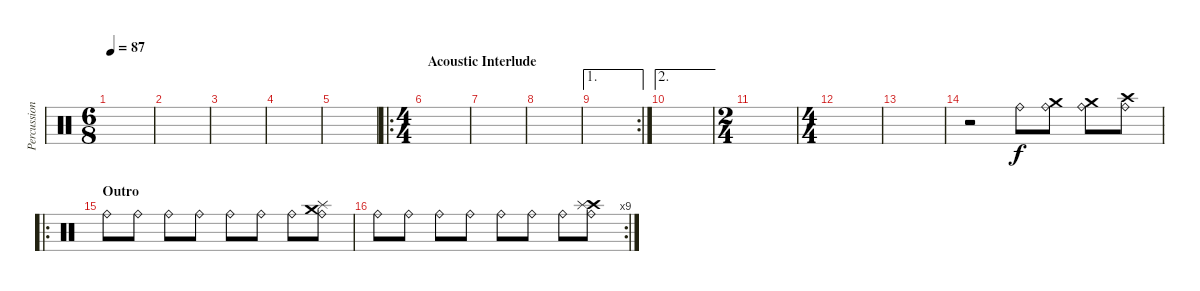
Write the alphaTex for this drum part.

\track ("Percussion" "Percussion") {instrument percussion}
\staff {score}
\articulation defaults
\ts (6 8)
\tempo 87
\clef neutral
\ks c
|
|
|
|
|
\ro
\ts (4 4)
\section ("" "Acoustic Interlude")
|
|
|
\ae 1
\rc 2
|
\ae 2
|
\ts (2 4)
|
\ts (4 4)
|
|
r.2 "Ride (bell)".8 ("Crash medium (hit)" "Ride (bell)").8 ("Crash medium (hit)" "Ride (bell)").8 ("Crash high (hit)" "Ride (bell)").8 |
\ro
\section ("" "Outro")
"Ride (bell)".8 "Ride (bell)".8 "Ride (bell)".8 "Ride (bell)".8 "Ride (bell)".8 "Ride (bell)".8 "Ride (bell)".8 ("Crash medium (hit)" "Ride (bell)" "Splash (hit)").8 |
\rc 9 "Ride (bell)".8 "Ride (bell)".8 "Ride (bell)".8 "Ride (bell)".8 "Ride (bell)".8 "Ride (bell)".8 "Ride (bell)".8
("Crash high (hit)" "Ride (bell)" "Splash (hit)").8
